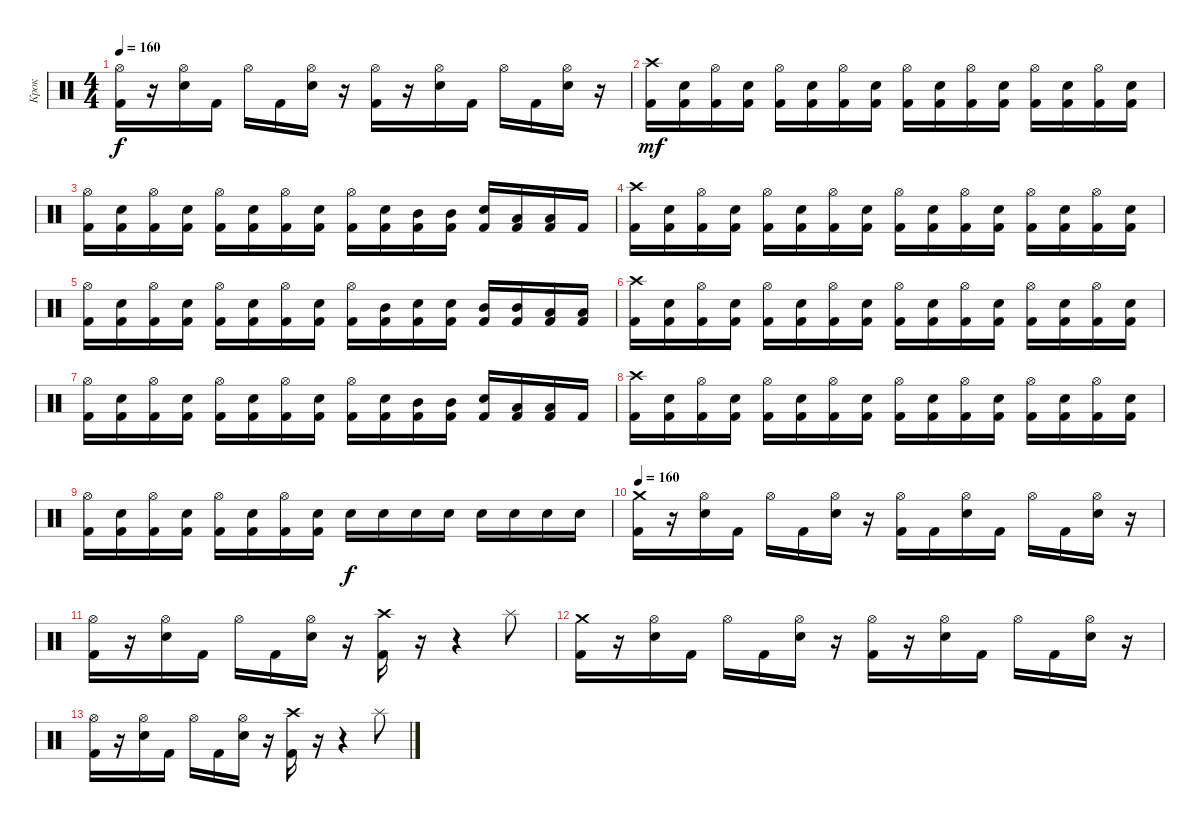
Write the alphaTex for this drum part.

\track ("Крок" "Крок") {instrument percussion}
\staff {score}
\articulation defaults
\ts (4 4)
\tempo 160
\clef neutral
\ks c
("Hi-Hat (open)" "Kick (hit) 2").16{dy f} r.16 ("Hi-Hat (open)" "Electric Snare (hit)").16 "Kick (hit) 2".16 "Hi-Hat (open)".16 "Kick (hit) 2".16 ("Hi-Hat (open)" "Electric Snare (hit)").16 r.16 ("Hi-Hat (open)" "Kick (hit) 2").16 r.16 ("Hi-Hat (open)" "Electric Snare (hit)").16 "Kick (hit) 2".16 "Hi-Hat (open)".16 "Kick (hit) 2".16 ("Hi-Hat (open)" "Electric Snare (hit)").16 r.16 |
("Kick (hit) 2" "Crash high (hit)").16{dy mf} ("Kick (hit) 2" "Electric Snare (hit)").16 ("Kick (hit) 2" "Hi-Hat (open)").16 ("Kick (hit) 2" "Electric Snare (hit)").16 ("Kick (hit) 2" "Hi-Hat (open)").16 ("Kick (hit) 2" "Electric Snare (hit)").16 ("Kick (hit) 2" "Hi-Hat (open)").16 ("Kick (hit) 2" "Electric Snare (hit)").16 ("Kick (hit) 2" "Hi-Hat (open)").16 ("Kick (hit) 2" "Electric Snare (hit)").16 ("Kick (hit) 2" "Hi-Hat (open)").16 ("Kick (hit) 2" "Electric Snare (hit)").16 ("Kick (hit) 2" "Hi-Hat (open)").16 ("Kick (hit) 2" "Electric Snare (hit)").16 ("Kick (hit) 2" "Hi-Hat (open)").16 ("Kick (hit) 2" "Electric Snare (hit)").16 |
("Kick (hit) 2" "Hi-Hat (open)").16 ("Kick (hit) 2" "Electric Snare (hit)").16 ("Kick (hit) 2" "Hi-Hat (open)").16 ("Kick (hit) 2" "Electric Snare (hit)").16 ("Kick (hit) 2" "Hi-Hat (open)").16 ("Kick (hit) 2" "Electric Snare (hit)").16 ("Kick (hit) 2" "Hi-Hat (open)").16 ("Kick (hit) 2" "Electric Snare (hit)").16 ("Kick (hit) 2" "Hi-Hat (open)").16 ("Kick (hit) 2" "Electric Snare (hit)").16 ("Kick (hit) 2" "Mid Tom (hit)").16 ("Kick (hit) 2" "Mid Tom (hit)").16 ("Kick (hit) 2" "Electric Snare (hit)").16 ("Kick (hit) 2" "Low Tom (hit)").16 ("Kick (hit) 2" "Low Tom (hit)").16 "Kick (hit) 2".16 |
("Kick (hit) 2" "Crash high (hit)").16 ("Kick (hit) 2" "Electric Snare (hit)").16 ("Kick (hit) 2" "Hi-Hat (open)").16 ("Kick (hit) 2" "Electric Snare (hit)").16 ("Kick (hit) 2" "Hi-Hat (open)").16 ("Kick (hit) 2" "Electric Snare (hit)").16 ("Kick (hit) 2" "Hi-Hat (open)").16 ("Kick (hit) 2" "Electric Snare (hit)").16 ("Kick (hit) 2" "Hi-Hat (open)").16 ("Kick (hit) 2" "Electric Snare (hit)").16 ("Kick (hit) 2" "Hi-Hat (open)").16 ("Kick (hit) 2" "Electric Snare (hit)").16 ("Kick (hit) 2" "Hi-Hat (open)").16 ("Kick (hit) 2" "Electric Snare (hit)").16 ("Kick (hit) 2" "Hi-Hat (open)").16 ("Kick (hit) 2" "Electric Snare (hit)").16 |
("Kick (hit) 2" "Hi-Hat (open)").16 ("Kick (hit) 2" "Electric Snare (hit)").16 ("Kick (hit) 2" "Hi-Hat (open)").16 ("Kick (hit) 2" "Electric Snare (hit)").16 ("Kick (hit) 2" "Hi-Hat (open)").16 ("Kick (hit) 2" "Electric Snare (hit)").16 ("Kick (hit) 2" "Hi-Hat (open)").16 ("Kick (hit) 2" "Electric Snare (hit)").16 ("Kick (hit) 2" "Hi-Hat (open)").16 ("Kick (hit) 2" "Mid Tom (hit)").16 ("Kick (hit) 2" "Electric Snare (hit)").16 ("Kick (hit) 2" "Electric Snare (hit)").16 ("Kick (hit) 2" "Mid Tom (hit)").16 ("Kick (hit) 2" "Mid Tom (hit)").16 ("Kick (hit) 2" "Low Tom (hit)").16 ("Kick (hit) 2" "Low Tom (hit)").16 |
("Kick (hit) 2" "Crash high (hit)").16 ("Kick (hit) 2" "Electric Snare (hit)").16 ("Kick (hit) 2" "Hi-Hat (open)").16 ("Kick (hit) 2" "Electric Snare (hit)").16 ("Kick (hit) 2" "Hi-Hat (open)").16 ("Kick (hit) 2" "Electric Snare (hit)").16 ("Kick (hit) 2" "Hi-Hat (open)").16 ("Kick (hit) 2" "Electric Snare (hit)").16 ("Kick (hit) 2" "Hi-Hat (open)").16 ("Kick (hit) 2" "Electric Snare (hit)").16 ("Kick (hit) 2" "Hi-Hat (open)").16 ("Kick (hit) 2" "Electric Snare (hit)").16 ("Kick (hit) 2" "Hi-Hat (open)").16 ("Kick (hit) 2" "Electric Snare (hit)").16 ("Kick (hit) 2" "Hi-Hat (open)").16 ("Kick (hit) 2" "Electric Snare (hit)").16 |
("Kick (hit) 2" "Hi-Hat (open)").16 ("Kick (hit) 2" "Electric Snare (hit)").16 ("Kick (hit) 2" "Hi-Hat (open)").16 ("Kick (hit) 2" "Electric Snare (hit)").16 ("Kick (hit) 2" "Hi-Hat (open)").16 ("Kick (hit) 2" "Electric Snare (hit)").16 ("Kick (hit) 2" "Hi-Hat (open)").16 ("Kick (hit) 2" "Electric Snare (hit)").16 ("Kick (hit) 2" "Hi-Hat (open)").16 ("Kick (hit) 2" "Electric Snare (hit)").16 ("Kick (hit) 2" "Mid Tom (hit)").16 ("Kick (hit) 2" "Mid Tom (hit)").16 ("Kick (hit) 2" "Electric Snare (hit)").16 ("Kick (hit) 2" "Low Tom (hit)").16 ("Kick (hit) 2" "Low Tom (hit)").16 "Kick (hit) 2".16 |
("Kick (hit) 2" "Crash high (hit)").16 ("Kick (hit) 2" "Electric Snare (hit)").16 ("Kick (hit) 2" "Hi-Hat (open)").16 ("Kick (hit) 2" "Electric Snare (hit)").16 ("Kick (hit) 2" "Hi-Hat (open)").16 ("Kick (hit) 2" "Electric Snare (hit)").16 ("Kick (hit) 2" "Hi-Hat (open)").16 ("Kick (hit) 2" "Electric Snare (hit)").16 ("Kick (hit) 2" "Hi-Hat (open)").16 ("Kick (hit) 2" "Electric Snare (hit)").16 ("Kick (hit) 2" "Hi-Hat (open)").16 ("Kick (hit) 2" "Electric Snare (hit)").16 ("Kick (hit) 2" "Hi-Hat (open)").16 ("Kick (hit) 2" "Electric Snare (hit)").16 ("Kick (hit) 2" "Hi-Hat (open)").16 ("Kick (hit) 2" "Electric Snare (hit)").16 |
("Kick (hit) 2" "Hi-Hat (open)").16 ("Kick (hit) 2" "Electric Snare (hit)").16 ("Kick (hit) 2" "Hi-Hat (open)").16 ("Kick (hit) 2" "Electric Snare (hit)").16 ("Kick (hit) 2" "Hi-Hat (open)").16 ("Kick (hit) 2" "Electric Snare (hit)").16 ("Kick (hit) 2" "Hi-Hat (open)").16 ("Kick (hit) 2" "Electric Snare (hit)").16 "Electric Snare (hit)".16{dy f} "Electric Snare (hit)".16 "Electric Snare (hit)".16 "Electric Snare (hit)".16 "Electric Snare (hit)".16 "Electric Snare (hit)".16 "Electric Snare (hit)".16 "Electric Snare (hit)".16 |
\tempo 160
("Crash medium (hit)" "Kick (hit) 2").16 r.16 ("Hi-Hat (open)" "Electric Snare (hit)").16 "Kick (hit) 2".16 "Hi-Hat (open)".16 "Kick (hit) 2".16 ("Hi-Hat (open)" "Electric Snare (hit)").16 r.16 ("Hi-Hat (open)" "Kick (hit) 2").16 "Kick (hit) 2".16 ("Hi-Hat (open)" "Electric Snare (hit)").16 "Kick (hit) 2".16 "Hi-Hat (open)".16 "Kick (hit) 2".16 ("Hi-Hat (open)" "Electric Snare (hit)").16 r.16 |
("Hi-Hat (open)" "Kick (hit) 2").16 r.16 ("Hi-Hat (open)" "Electric Snare (hit)").16 "Kick (hit) 2".16 "Hi-Hat (open)".16 "Kick (hit) 2".16 ("Hi-Hat (open)" "Electric Snare (hit)").16 r.16 ("Crash high (hit)" "Kick (hit) 2").16 r.16 r.4 "Splash (hit)".8 |
("Crash medium (hit)" "Kick (hit) 2").16 r.16 ("Hi-Hat (open)" "Electric Snare (hit)").16 "Kick (hit) 2".16 "Hi-Hat (open)".16 "Kick (hit) 2".16 ("Hi-Hat (open)" "Electric Snare (hit)").16 r.16 ("Hi-Hat (open)" "Kick (hit) 2").16 r.16 ("Hi-Hat (open)" "Electric Snare (hit)").16 "Kick (hit) 2".16 "Hi-Hat (open)".16 "Kick (hit) 2".16 ("Hi-Hat (open)" "Electric Snare (hit)").16 r.16 |
("Hi-Hat (open)" "Kick (hit) 2").16 r.16 ("Hi-Hat (open)" "Electric Snare (hit)").16 "Kick (hit) 2".16 "Hi-Hat (open)".16 "Kick (hit) 2".16 ("Hi-Hat (open)" "Electric Snare (hit)").16 r.16 ("Crash high (hit)" "Kick (hit) 2").16 r.16 r.4 "Splash (hit)".8
